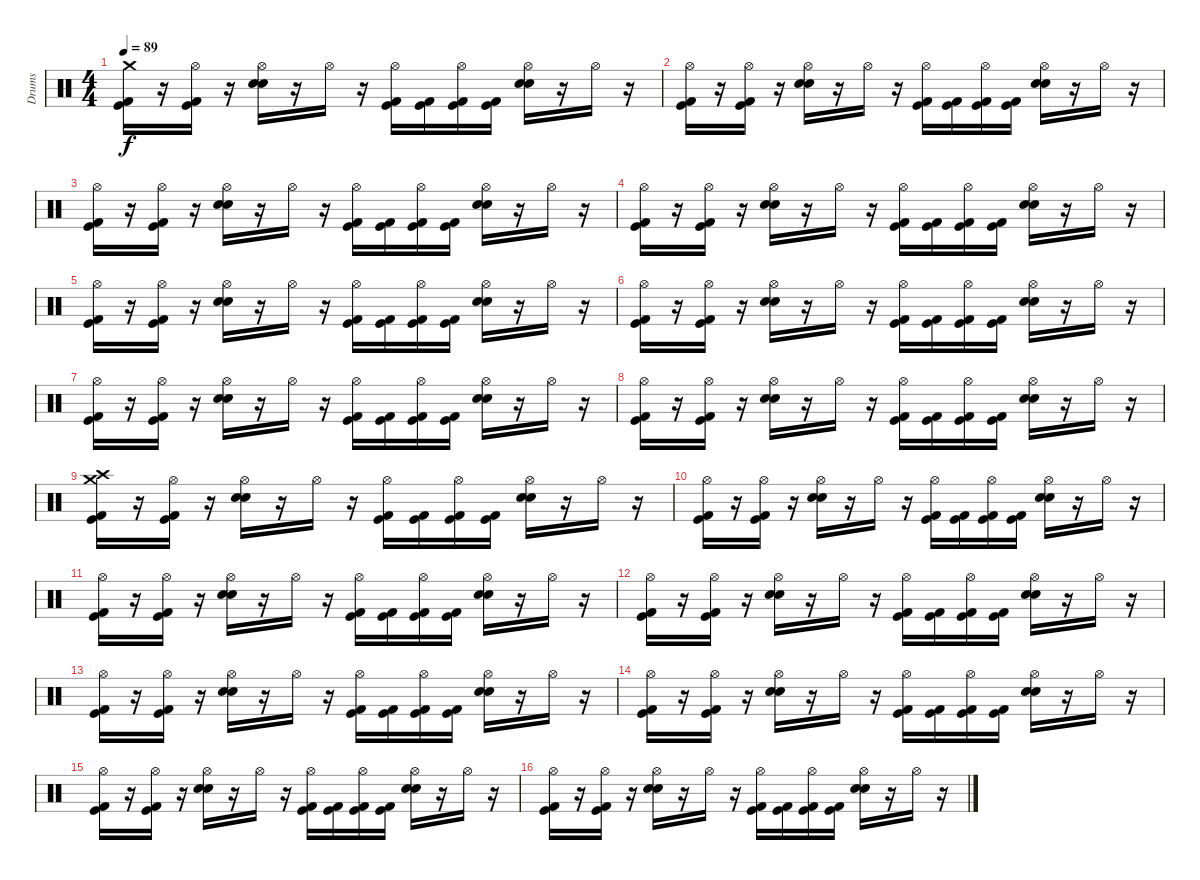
\track ("Drums" "Drums") {instrument percussion}
\staff {score}
\articulation defaults
\ts (4 4)
\tempo 89
\clef neutral
\ks c
("Crash medium (hit)" "Kick (hit) 2" "Kick (hit)").16{dy f} r.16 ("Hi-Hat (open)" "Kick (hit) 2" "Kick (hit)").16 r.16 ("Hi-Hat (open)" "Electric Snare (hit)" "Snare (hit) 2").16 r.16 "Hi-Hat (open)".16 r.16 ("Hi-Hat (open)" "Kick (hit) 2" "Kick (hit)").16 ("Kick (hit) 2" "Kick (hit)").16 ("Hi-Hat (open)" "Kick (hit) 2" "Kick (hit)").16 ("Kick (hit) 2" "Kick (hit)").16 ("Hi-Hat (open)" "Electric Snare (hit)" "Snare (hit) 2").16 r.16 "Hi-Hat (open)".16 r.16 |
("Hi-Hat (open)" "Kick (hit) 2" "Kick (hit)").16 r.16 ("Hi-Hat (open)" "Kick (hit) 2" "Kick (hit)").16 r.16 ("Hi-Hat (open)" "Electric Snare (hit)" "Snare (hit) 2").16 r.16 "Hi-Hat (open)".16 r.16 ("Hi-Hat (open)" "Kick (hit) 2" "Kick (hit)").16 ("Kick (hit) 2" "Kick (hit)").16 ("Hi-Hat (open)" "Kick (hit) 2" "Kick (hit)").16 ("Kick (hit) 2" "Kick (hit)").16 ("Hi-Hat (open)" "Electric Snare (hit)" "Snare (hit) 2").16 r.16 "Hi-Hat (open)".16 r.16 |
("Hi-Hat (open)" "Kick (hit) 2" "Kick (hit)").16 r.16 ("Hi-Hat (open)" "Kick (hit) 2" "Kick (hit)").16 r.16 ("Hi-Hat (open)" "Electric Snare (hit)" "Snare (hit) 2").16 r.16 "Hi-Hat (open)".16 r.16 ("Hi-Hat (open)" "Kick (hit) 2" "Kick (hit)").16 ("Kick (hit) 2" "Kick (hit)").16 ("Hi-Hat (open)" "Kick (hit) 2" "Kick (hit)").16 ("Kick (hit) 2" "Kick (hit)").16 ("Hi-Hat (open)" "Electric Snare (hit)" "Snare (hit) 2").16 r.16 "Hi-Hat (open)".16 r.16 |
("Hi-Hat (open)" "Kick (hit) 2" "Kick (hit)").16 r.16 ("Hi-Hat (open)" "Kick (hit) 2" "Kick (hit)").16 r.16 ("Hi-Hat (open)" "Electric Snare (hit)" "Snare (hit) 2").16 r.16 "Hi-Hat (open)".16 r.16 ("Hi-Hat (open)" "Kick (hit) 2" "Kick (hit)").16 ("Kick (hit) 2" "Kick (hit)").16 ("Hi-Hat (open)" "Kick (hit) 2" "Kick (hit)").16 ("Kick (hit) 2" "Kick (hit)").16 ("Hi-Hat (open)" "Electric Snare (hit)" "Snare (hit) 2").16 r.16 "Hi-Hat (open)".16 r.16 |
("Hi-Hat (open)" "Kick (hit) 2" "Kick (hit)").16 r.16 ("Hi-Hat (open)" "Kick (hit) 2" "Kick (hit)").16 r.16 ("Hi-Hat (open)" "Electric Snare (hit)" "Snare (hit) 2").16 r.16 "Hi-Hat (open)".16 r.16 ("Hi-Hat (open)" "Kick (hit) 2" "Kick (hit)").16 ("Kick (hit) 2" "Kick (hit)").16 ("Hi-Hat (open)" "Kick (hit) 2" "Kick (hit)").16 ("Kick (hit) 2" "Kick (hit)").16 ("Hi-Hat (open)" "Electric Snare (hit)" "Snare (hit) 2").16 r.16 "Hi-Hat (open)".16 r.16 |
("Hi-Hat (open)" "Kick (hit) 2" "Kick (hit)").16 r.16 ("Hi-Hat (open)" "Kick (hit) 2" "Kick (hit)").16 r.16 ("Hi-Hat (open)" "Electric Snare (hit)" "Snare (hit) 2").16 r.16 "Hi-Hat (open)".16 r.16 ("Hi-Hat (open)" "Kick (hit) 2" "Kick (hit)").16 ("Kick (hit) 2" "Kick (hit)").16 ("Hi-Hat (open)" "Kick (hit) 2" "Kick (hit)").16 ("Kick (hit) 2" "Kick (hit)").16 ("Hi-Hat (open)" "Electric Snare (hit)" "Snare (hit) 2").16 r.16 "Hi-Hat (open)".16 r.16 |
("Hi-Hat (open)" "Kick (hit) 2" "Kick (hit)").16 r.16 ("Hi-Hat (open)" "Kick (hit) 2" "Kick (hit)").16 r.16 ("Hi-Hat (open)" "Electric Snare (hit)" "Snare (hit) 2").16 r.16 "Hi-Hat (open)".16 r.16 ("Hi-Hat (open)" "Kick (hit) 2" "Kick (hit)").16 ("Kick (hit) 2" "Kick (hit)").16 ("Hi-Hat (open)" "Kick (hit) 2" "Kick (hit)").16 ("Kick (hit) 2" "Kick (hit)").16 ("Hi-Hat (open)" "Electric Snare (hit)" "Snare (hit) 2").16 r.16 "Hi-Hat (open)".16 r.16 |
("Hi-Hat (open)" "Kick (hit) 2" "Kick (hit)").16 r.16 ("Hi-Hat (open)" "Kick (hit) 2" "Kick (hit)").16 r.16 ("Hi-Hat (open)" "Electric Snare (hit)" "Snare (hit) 2").16 r.16 "Hi-Hat (open)".16 r.16 ("Hi-Hat (open)" "Kick (hit) 2" "Kick (hit)").16 ("Kick (hit) 2" "Kick (hit)").16 ("Hi-Hat (open)" "Kick (hit) 2" "Kick (hit)").16 ("Kick (hit) 2" "Kick (hit)").16 ("Hi-Hat (open)" "Electric Snare (hit)" "Snare (hit) 2").16 r.16 "Hi-Hat (open)".16 r.16 |
("Crash high (hit)" "Crash medium (hit)" "Kick (hit) 2" "Kick (hit)").16 r.16 ("Hi-Hat (open)" "Kick (hit) 2" "Kick (hit)").16 r.16 ("Hi-Hat (open)" "Electric Snare (hit)" "Snare (hit) 2").16 r.16 "Hi-Hat (open)".16 r.16 ("Hi-Hat (open)" "Kick (hit) 2" "Kick (hit)").16 ("Kick (hit) 2" "Kick (hit)").16 ("Hi-Hat (open)" "Kick (hit) 2" "Kick (hit)").16 ("Kick (hit) 2" "Kick (hit)").16 ("Hi-Hat (open)" "Electric Snare (hit)" "Snare (hit) 2").16 r.16 "Hi-Hat (open)".16 r.16 |
("Hi-Hat (open)" "Kick (hit) 2" "Kick (hit)").16 r.16 ("Hi-Hat (open)" "Kick (hit) 2" "Kick (hit)").16 r.16 ("Hi-Hat (open)" "Electric Snare (hit)" "Snare (hit) 2").16 r.16 "Hi-Hat (open)".16 r.16 ("Hi-Hat (open)" "Kick (hit) 2" "Kick (hit)").16 ("Kick (hit) 2" "Kick (hit)").16 ("Hi-Hat (open)" "Kick (hit) 2" "Kick (hit)").16 ("Kick (hit) 2" "Kick (hit)").16 ("Hi-Hat (open)" "Electric Snare (hit)" "Snare (hit) 2").16 r.16 "Hi-Hat (open)".16 r.16 |
("Hi-Hat (open)" "Kick (hit) 2" "Kick (hit)").16 r.16 ("Hi-Hat (open)" "Kick (hit) 2" "Kick (hit)").16 r.16 ("Hi-Hat (open)" "Electric Snare (hit)" "Snare (hit) 2").16 r.16 "Hi-Hat (open)".16 r.16 ("Hi-Hat (open)" "Kick (hit) 2" "Kick (hit)").16 ("Kick (hit) 2" "Kick (hit)").16 ("Hi-Hat (open)" "Kick (hit) 2" "Kick (hit)").16 ("Kick (hit) 2" "Kick (hit)").16 ("Hi-Hat (open)" "Electric Snare (hit)" "Snare (hit) 2").16 r.16 "Hi-Hat (open)".16 r.16 |
("Hi-Hat (open)" "Kick (hit) 2" "Kick (hit)").16 r.16 ("Hi-Hat (open)" "Kick (hit) 2" "Kick (hit)").16 r.16 ("Hi-Hat (open)" "Electric Snare (hit)" "Snare (hit) 2").16 r.16 "Hi-Hat (open)".16 r.16 ("Hi-Hat (open)" "Kick (hit) 2" "Kick (hit)").16 ("Kick (hit) 2" "Kick (hit)").16 ("Hi-Hat (open)" "Kick (hit) 2" "Kick (hit)").16 ("Kick (hit) 2" "Kick (hit)").16 ("Hi-Hat (open)" "Electric Snare (hit)" "Snare (hit) 2").16 r.16 "Hi-Hat (open)".16 r.16 |
("Hi-Hat (open)" "Kick (hit) 2" "Kick (hit)").16 r.16 ("Hi-Hat (open)" "Kick (hit) 2" "Kick (hit)").16 r.16 ("Hi-Hat (open)" "Electric Snare (hit)" "Snare (hit) 2").16 r.16 "Hi-Hat (open)".16 r.16 ("Hi-Hat (open)" "Kick (hit) 2" "Kick (hit)").16 ("Kick (hit) 2" "Kick (hit)").16 ("Hi-Hat (open)" "Kick (hit) 2" "Kick (hit)").16 ("Kick (hit) 2" "Kick (hit)").16 ("Hi-Hat (open)" "Electric Snare (hit)" "Snare (hit) 2").16 r.16 "Hi-Hat (open)".16 r.16 |
("Hi-Hat (open)" "Kick (hit) 2" "Kick (hit)").16 r.16 ("Hi-Hat (open)" "Kick (hit) 2" "Kick (hit)").16 r.16 ("Hi-Hat (open)" "Electric Snare (hit)" "Snare (hit) 2").16 r.16 "Hi-Hat (open)".16 r.16 ("Hi-Hat (open)" "Kick (hit) 2" "Kick (hit)").16 ("Kick (hit) 2" "Kick (hit)").16 ("Hi-Hat (open)" "Kick (hit) 2" "Kick (hit)").16 ("Kick (hit) 2" "Kick (hit)").16 ("Hi-Hat (open)" "Electric Snare (hit)" "Snare (hit) 2").16 r.16 "Hi-Hat (open)".16 r.16 |
("Hi-Hat (open)" "Kick (hit) 2" "Kick (hit)").16 r.16 ("Hi-Hat (open)" "Kick (hit) 2" "Kick (hit)").16 r.16 ("Hi-Hat (open)" "Electric Snare (hit)" "Snare (hit) 2").16 r.16 "Hi-Hat (open)".16 r.16 ("Hi-Hat (open)" "Kick (hit) 2" "Kick (hit)").16 ("Kick (hit) 2" "Kick (hit)").16 ("Hi-Hat (open)" "Kick (hit) 2" "Kick (hit)").16 ("Kick (hit) 2" "Kick (hit)").16 ("Hi-Hat (open)" "Electric Snare (hit)" "Snare (hit) 2").16 r.16 "Hi-Hat (open)".16 r.16 |
("Hi-Hat (open)" "Kick (hit) 2" "Kick (hit)").16 r.16 ("Hi-Hat (open)" "Kick (hit) 2" "Kick (hit)").16 r.16 ("Hi-Hat (open)" "Electric Snare (hit)" "Snare (hit) 2").16 r.16 "Hi-Hat (open)".16 r.16 ("Hi-Hat (open)" "Kick (hit) 2" "Kick (hit)").16 ("Kick (hit) 2" "Kick (hit)").16 ("Hi-Hat (open)" "Kick (hit) 2" "Kick (hit)").16 ("Kick (hit) 2" "Kick (hit)").16 ("Hi-Hat (open)" "Electric Snare (hit)" "Snare (hit) 2").16 r.16 "Hi-Hat (open)".16 r.16
